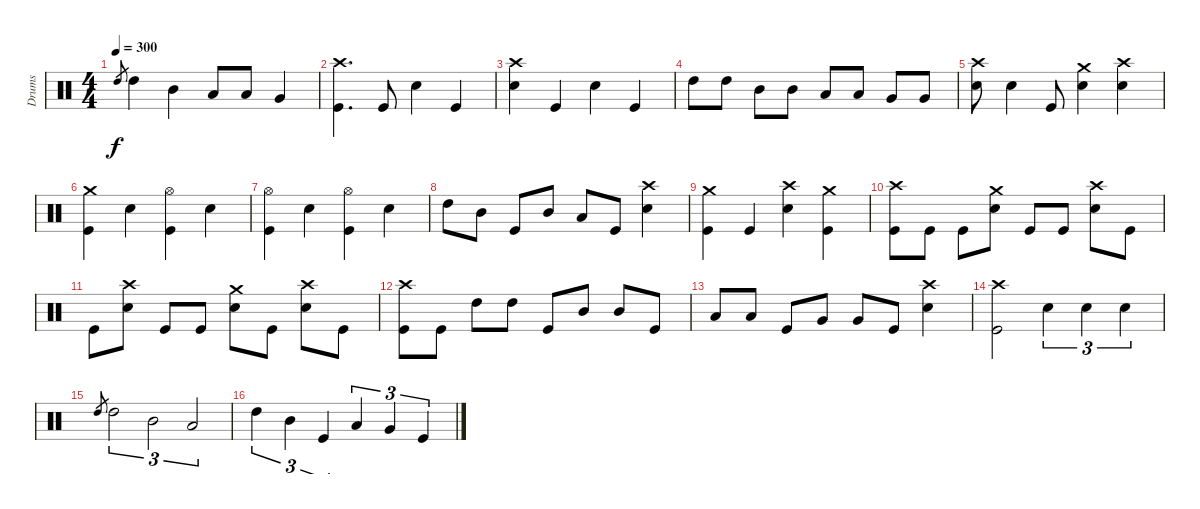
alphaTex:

\track ("Drums" "Drums") {instrument percussion}
\staff {score}
\articulation defaults
\ts (4 4)
\tempo 300
\clef neutral
\ks c "High Tom (hit)".8{gr dy f} "High Tom (hit)".4 "Mid Tom (hit)".4 "Low Tom (hit)".8 "Low Tom (hit)".8 "Very Low Tom (hit)".4
|
("Crash high (hit)" "Kick (hit)").4{d} "Kick (hit)".8 "Electric Snare (hit)".4 "Kick (hit)".4 |
("Crash high (hit)" "Electric Snare (hit)").4 "Kick (hit)".4 "Electric Snare (hit)".4 "Kick (hit)".4 |
"High Tom (hit)".8 "High Tom (hit)".8 "Mid Tom (hit)".8 "Mid Tom (hit)".8 "Low Tom (hit)".8 "Low Tom (hit)".8 "Very Low Tom (hit)".8 "Very Low Tom (hit)".8 |
("Crash high (hit)" "Electric Snare (hit)").8 "Electric Snare (hit)".4 "Kick (hit)".8 ("Crash medium (hit)" "Electric Snare (hit)").4 ("Crash high (hit)" "Electric Snare (hit)").4 |
("Crash medium (hit)" "Kick (hit)").4 "Electric Snare (hit)".4 ("Hi-Hat (open)" "Kick (hit)").4 "Electric Snare (hit)".4 |
("Hi-Hat (open)" "Kick (hit)").4 "Electric Snare (hit)".4 ("Hi-Hat (open)" "Kick (hit)").4 "Electric Snare (hit)".4 |
"High Tom (hit)".8 "Mid Tom (hit)".8 "Kick (hit)".8 "Mid Tom (hit)".8 "Low Tom (hit)".8 "Kick (hit)".8 ("Crash high (hit)" "Electric Snare (hit)").4 |
("Crash medium (hit)" "Kick (hit)").4 "Kick (hit)".4 ("Crash high (hit)" "Electric Snare (hit)").4 ("Crash medium (hit)" "Kick (hit)").4 |
("Crash high (hit)" "Kick (hit)").8 "Kick (hit)".8 "Kick (hit)".8 ("Crash medium (hit)" "Electric Snare (hit)").8 "Kick (hit)".8 "Kick (hit)".8 ("Crash high (hit)" "Electric Snare (hit)").8 "Kick (hit)".8 |
"Kick (hit)".8 ("Crash high (hit)" "Electric Snare (hit)").8 "Kick (hit)".8 "Kick (hit)".8 ("Crash medium (hit)" "Electric Snare (hit)").8 "Kick (hit)".8 ("Crash high (hit)" "Electric Snare (hit)").8 "Kick (hit)".8 |
("Crash high (hit)" "Kick (hit)").8 "Kick (hit)".8 "High Tom (hit)".8 "High Tom (hit)".8 "Kick (hit)".8 "Mid Tom (hit)".8 "Mid Tom (hit)".8 "Kick (hit)".8 |
"Low Tom (hit)".8 "Low Tom (hit)".8 "Kick (hit)".8 "Very Low Tom (hit)".8 "Very Low Tom (hit)".8 "Kick (hit)".8 ("Crash high (hit)" "Electric Snare (hit)").4 |
("Crash high (hit)" "Kick (hit)").2 "Electric Snare (hit)".4{tu (3 2)} "Electric Snare (hit)".4{tu (3 2)} "Electric Snare (hit)".4{tu (3 2)} |
"High Tom (hit)".8{gr} "High Tom (hit)".2{tu (3 2)} "Mid Tom (hit)".2{tu (3 2)} "Low Tom (hit)".2{tu (3 2)} |
"High Tom (hit)".4{tu (3 2)} "Mid Tom (hit)".4{tu (3 2)} "Kick (hit)".4{tu (3 2)} "Low Tom (hit)".4{tu (3 2)} "Very Low Tom (hit)".4{tu (3 2)} "Kick (hit)".4{tu (3 2)}
